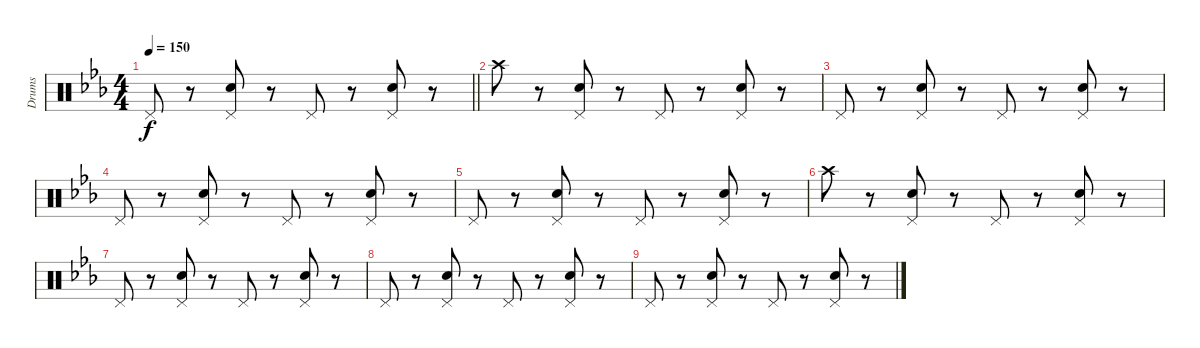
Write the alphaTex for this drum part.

\track ("Drums" "Drums") {instrument percussion}
\staff {score}
\articulation defaults
\ts (4 4)
\tempo 150
\clef neutral
\barLineRight lightlight
\ks cminor "Pedal Hi-Hat (hit)".8{dy f}
r.8 ("Pedal Hi-Hat (hit)" "Electric Snare (hit)").8 r.8 "Pedal Hi-Hat (hit)".8 r.8 ("Pedal Hi-Hat (hit)" "Electric Snare (hit)").8 r.8 |
"Crash high (hit)".8 r.8 ("Pedal Hi-Hat (hit)" "Electric Snare (hit)").8 r.8 "Pedal Hi-Hat (hit)".8 r.8 ("Pedal Hi-Hat (hit)" "Electric Snare (hit)").8 r.8 |
"Pedal Hi-Hat (hit)".8 r.8 ("Pedal Hi-Hat (hit)" "Electric Snare (hit)").8 r.8 "Pedal Hi-Hat (hit)".8 r.8 ("Pedal Hi-Hat (hit)" "Electric Snare (hit)").8 r.8 |
"Pedal Hi-Hat (hit)".8 r.8 ("Pedal Hi-Hat (hit)" "Electric Snare (hit)").8 r.8 "Pedal Hi-Hat (hit)".8 r.8 ("Pedal Hi-Hat (hit)" "Electric Snare (hit)").8 r.8 |
"Pedal Hi-Hat (hit)".8 r.8 ("Pedal Hi-Hat (hit)" "Electric Snare (hit)").8 r.8 "Pedal Hi-Hat (hit)".8 r.8 ("Pedal Hi-Hat (hit)" "Electric Snare (hit)").8 r.8 |
"Crash high (hit)".8 r.8 ("Pedal Hi-Hat (hit)" "Electric Snare (hit)").8 r.8 "Pedal Hi-Hat (hit)".8 r.8 ("Pedal Hi-Hat (hit)" "Electric Snare (hit)").8 r.8 |
"Pedal Hi-Hat (hit)".8 r.8 ("Pedal Hi-Hat (hit)" "Electric Snare (hit)").8 r.8 "Pedal Hi-Hat (hit)".8 r.8 ("Pedal Hi-Hat (hit)" "Electric Snare (hit)").8 r.8 |
"Pedal Hi-Hat (hit)".8 r.8 ("Pedal Hi-Hat (hit)" "Electric Snare (hit)").8 r.8 "Pedal Hi-Hat (hit)".8 r.8 ("Pedal Hi-Hat (hit)" "Electric Snare (hit)").8 r.8 |
"Pedal Hi-Hat (hit)".8 r.8 ("Pedal Hi-Hat (hit)" "Electric Snare (hit)").8 r.8 "Pedal Hi-Hat (hit)".8 r.8 ("Pedal Hi-Hat (hit)" "Electric Snare (hit)").8 r.8
